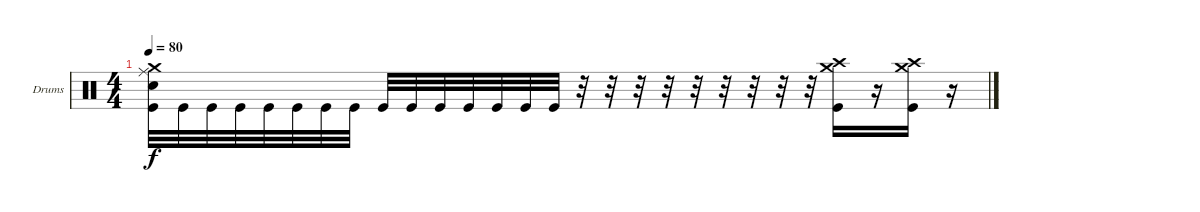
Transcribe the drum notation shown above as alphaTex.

\bracketExtendMode groupsimilarinstruments
\firstSystemTrackNameOrientation horizontal
\otherSystemsTrackNameOrientation horizontal
\track ("Drumkit" "Drums") {instrument percussion}
\staff {score}
\articulation defaults
\ts (4 4)
\tempo 80
\clef neutral
\ks c
("Crash medium (hit)" "Ride (middle)" "Snare (hit) 2" "Kick (hit)").32{dy f} "Kick (hit)".32 "Kick (hit)".32 "Kick (hit)".32 "Kick (hit)".32 "Kick (hit)".32 "Kick (hit)".32 "Kick (hit)".32 "Kick (hit)".32 "Kick (hit)".32 "Kick (hit)".32 "Kick (hit)".32 "Kick (hit)".32 "Kick (hit)".32 "Kick (hit)".32 r.32 r.32 r.32 r.32 r.32 r.32 r.32 r.32 r.32 ("Crash medium (hit)" "Crash high (hit)" "Kick (hit)").16 r.16 ("Crash medium (hit)" "Crash high (hit)" "Kick (hit)").16 r.16
